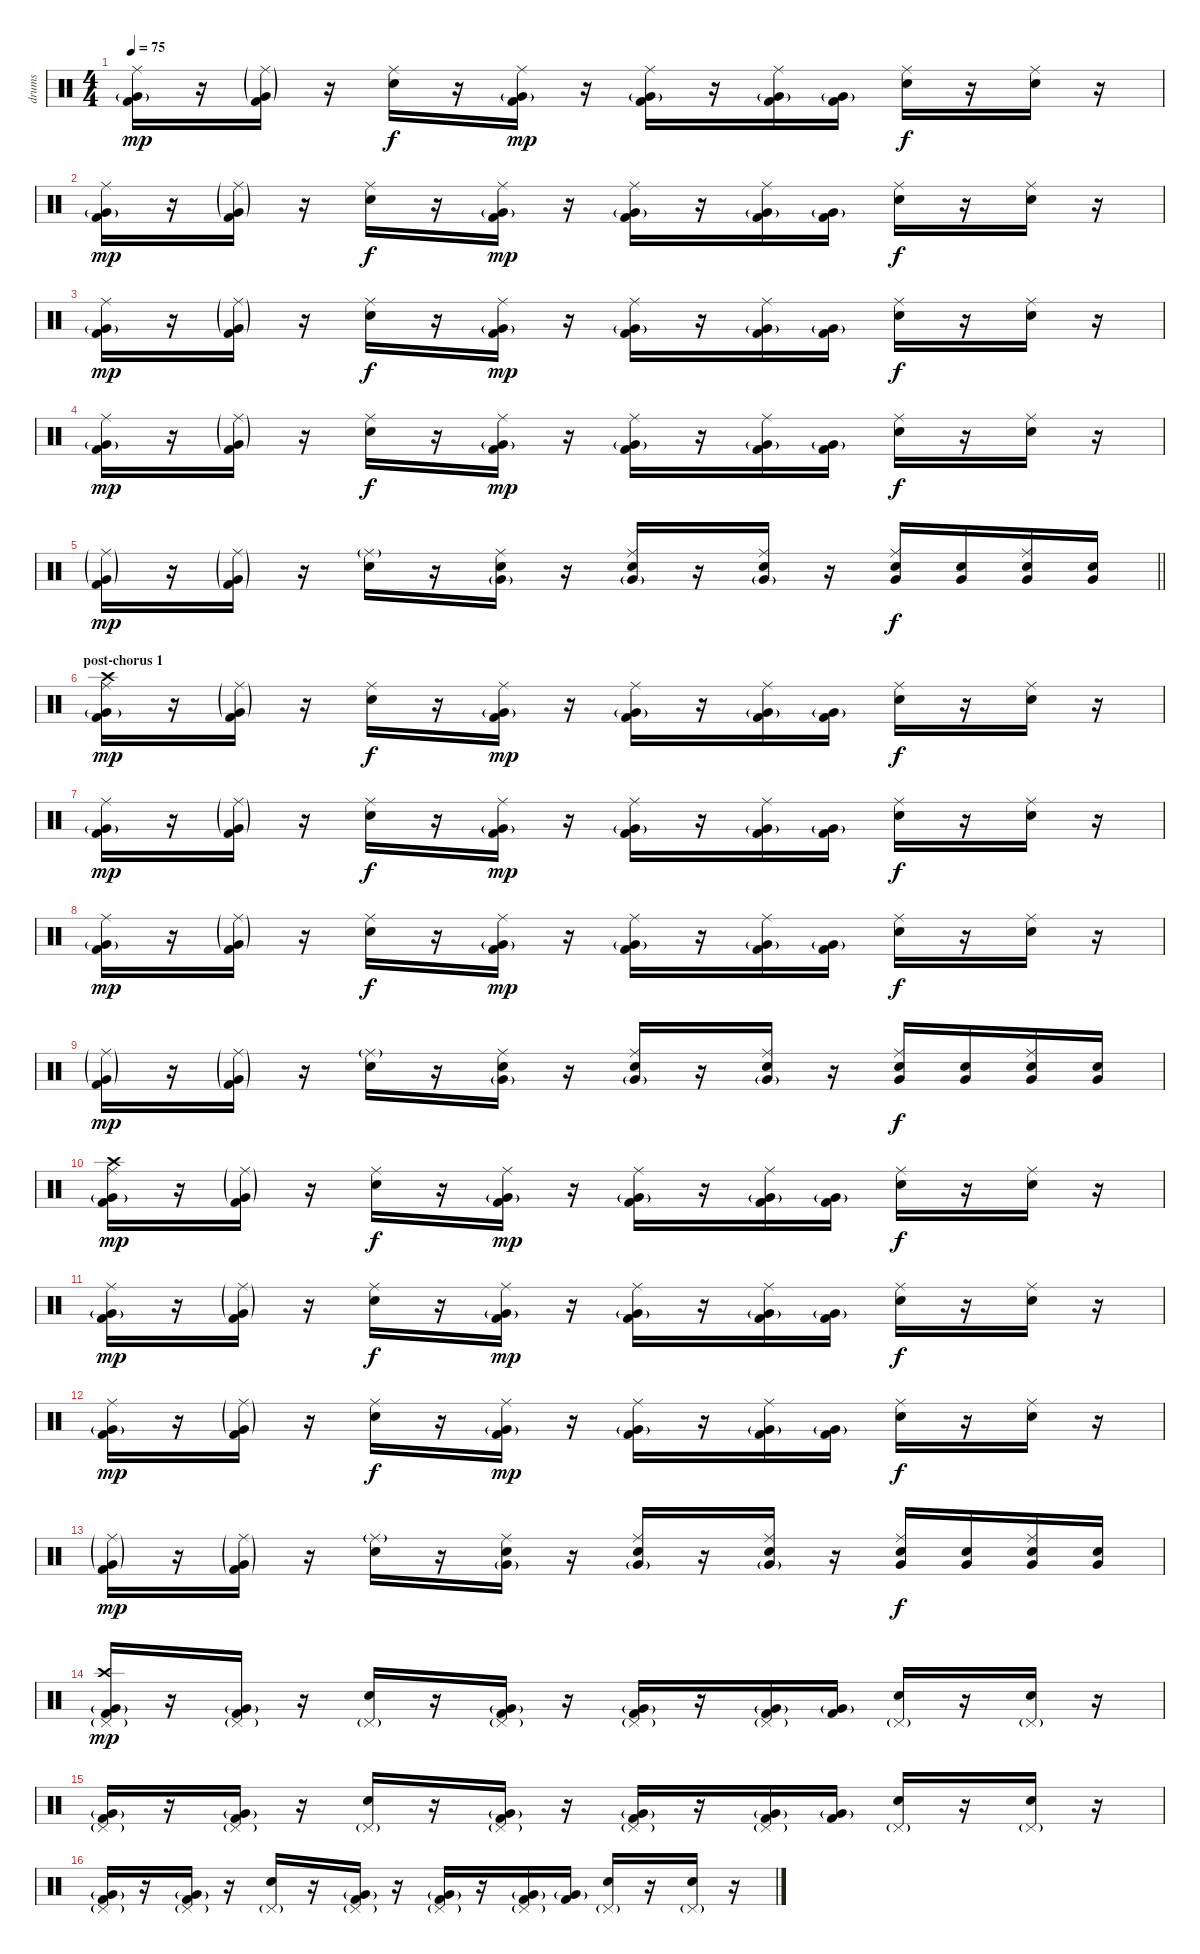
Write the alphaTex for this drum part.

\track ("drums" "drums") {instrument percussion}
\staff {score}
\articulation defaults
\ts (4 4)
\tempo 75
\clef neutral
\ks c
("Kick (hit) 2" "Very Low Tom (hit)"{g} "Ride (middle)").16{dy mp} r.16 ("Kick (hit) 2" "Very Low Tom (hit)"{g} "Ride (middle)"{g}).16 r.16 ("Electric Snare (hit)" "Ride (middle)").16{dy f} r.16 ("Kick (hit) 2" "Very Low Tom (hit)"{g} "Ride (middle)").16{dy mp} r.16 ("Kick (hit) 2" "Very Low Tom (hit)"{g} "Ride (middle)").16 r.16 ("Kick (hit) 2" "Very Low Tom (hit)"{g} "Ride (middle)").16 ("Kick (hit) 2" "Very Low Tom (hit)"{g}).16 ("Electric Snare (hit)" "Ride (middle)").16{dy f} r.16 ("Electric Snare (hit)" "Ride (middle)").16 r.16 |
("Kick (hit) 2" "Very Low Tom (hit)"{g} "Ride (middle)").16{dy mp} r.16 ("Kick (hit) 2" "Very Low Tom (hit)"{g} "Ride (middle)"{g}).16 r.16 ("Electric Snare (hit)" "Ride (middle)").16{dy f} r.16 ("Kick (hit) 2" "Very Low Tom (hit)"{g} "Ride (middle)").16{dy mp} r.16 ("Kick (hit) 2" "Very Low Tom (hit)"{g} "Ride (middle)").16 r.16 ("Kick (hit) 2" "Very Low Tom (hit)"{g} "Ride (middle)").16 ("Kick (hit) 2" "Very Low Tom (hit)"{g}).16 ("Electric Snare (hit)" "Ride (middle)").16{dy f} r.16 ("Electric Snare (hit)" "Ride (middle)").16 r.16 |
("Kick (hit) 2" "Very Low Tom (hit)"{g} "Ride (middle)").16{dy mp} r.16 ("Kick (hit) 2" "Very Low Tom (hit)"{g} "Ride (middle)"{g}).16 r.16 ("Electric Snare (hit)" "Ride (middle)").16{dy f} r.16 ("Kick (hit) 2" "Very Low Tom (hit)"{g} "Ride (middle)").16{dy mp} r.16 ("Kick (hit) 2" "Very Low Tom (hit)"{g} "Ride (middle)").16 r.16 ("Kick (hit) 2" "Very Low Tom (hit)"{g} "Ride (middle)").16 ("Kick (hit) 2" "Very Low Tom (hit)"{g}).16 ("Electric Snare (hit)" "Ride (middle)").16{dy f} r.16 ("Electric Snare (hit)" "Ride (middle)").16 r.16 |
("Kick (hit) 2" "Very Low Tom (hit)"{g} "Ride (middle)").16{dy mp} r.16 ("Kick (hit) 2" "Very Low Tom (hit)"{g} "Ride (middle)"{g}).16 r.16 ("Electric Snare (hit)" "Ride (middle)").16{dy f} r.16 ("Kick (hit) 2" "Very Low Tom (hit)"{g} "Ride (middle)").16{dy mp} r.16 ("Kick (hit) 2" "Very Low Tom (hit)"{g} "Ride (middle)").16 r.16 ("Kick (hit) 2" "Very Low Tom (hit)"{g} "Ride (middle)").16 ("Kick (hit) 2" "Very Low Tom (hit)"{g}).16 ("Electric Snare (hit)" "Ride (middle)").16{dy f} r.16 ("Electric Snare (hit)" "Ride (middle)").16 r.16 |
\barLineRight lightlight
("Kick (hit) 2" "Very Low Tom (hit)"{g} "Ride (middle)"{g}).16{dy mp} r.16 ("Kick (hit) 2"{g} "Very Low Tom (hit)"{g} "Ride (middle)"{g}).16 r.16 ("Electric Snare (hit)" "Ride (middle)"{g}).16 r.16 ("Electric Snare (hit)" "Very Low Tom (hit)"{g} "Ride (middle)").16 r.16 ("Electric Snare (hit)" "Very Low Tom (hit)"{g} "Ride (middle)").16 r.16 ("Electric Snare (hit)" "Very Low Tom (hit)"{g} "Ride (middle)").16 r.16 ("Electric Snare (hit)" "Very Low Tom (hit)" "Ride (middle)").16{dy f} ("Electric Snare (hit)" "Very Low Tom (hit)").16 ("Electric Snare (hit)" "Very Low Tom (hit)" "Ride (middle)").16 ("Electric Snare (hit)" "Very Low Tom (hit)").16 |
\section ("" "post-chorus 1")
("Kick (hit) 2" "Very Low Tom (hit)"{g} "Ride (middle)" "Crash high (hit)").16{dy mp} r.16 ("Kick (hit) 2" "Very Low Tom (hit)"{g} "Ride (middle)"{g}).16 r.16 ("Electric Snare (hit)" "Ride (middle)").16{dy f} r.16 ("Kick (hit) 2" "Very Low Tom (hit)"{g} "Ride (middle)").16{dy mp} r.16 ("Kick (hit) 2" "Very Low Tom (hit)"{g} "Ride (middle)").16 r.16 ("Kick (hit) 2" "Very Low Tom (hit)"{g} "Ride (middle)").16 ("Kick (hit) 2" "Very Low Tom (hit)"{g}).16 ("Electric Snare (hit)" "Ride (middle)").16{dy f} r.16 ("Electric Snare (hit)" "Ride (middle)").16 r.16 |
("Kick (hit) 2" "Very Low Tom (hit)"{g} "Ride (middle)").16{dy mp} r.16 ("Kick (hit) 2" "Very Low Tom (hit)"{g} "Ride (middle)"{g}).16 r.16 ("Electric Snare (hit)" "Ride (middle)").16{dy f} r.16 ("Kick (hit) 2" "Very Low Tom (hit)"{g} "Ride (middle)").16{dy mp} r.16 ("Kick (hit) 2" "Very Low Tom (hit)"{g} "Ride (middle)").16 r.16 ("Kick (hit) 2" "Very Low Tom (hit)"{g} "Ride (middle)").16 ("Kick (hit) 2" "Very Low Tom (hit)"{g}).16 ("Electric Snare (hit)" "Ride (middle)").16{dy f} r.16 ("Electric Snare (hit)" "Ride (middle)").16 r.16 |
("Kick (hit) 2" "Very Low Tom (hit)"{g} "Ride (middle)").16{dy mp} r.16 ("Kick (hit) 2" "Very Low Tom (hit)"{g} "Ride (middle)"{g}).16 r.16 ("Electric Snare (hit)" "Ride (middle)").16{dy f} r.16 ("Kick (hit) 2" "Very Low Tom (hit)"{g} "Ride (middle)").16{dy mp} r.16 ("Kick (hit) 2" "Very Low Tom (hit)"{g} "Ride (middle)").16 r.16 ("Kick (hit) 2" "Very Low Tom (hit)"{g} "Ride (middle)").16 ("Kick (hit) 2" "Very Low Tom (hit)"{g}).16 ("Electric Snare (hit)" "Ride (middle)").16{dy f} r.16 ("Electric Snare (hit)" "Ride (middle)").16 r.16 |
("Kick (hit) 2" "Very Low Tom (hit)"{g} "Ride (middle)"{g}).16{dy mp} r.16 ("Kick (hit) 2"{g} "Very Low Tom (hit)"{g} "Ride (middle)"{g}).16 r.16 ("Electric Snare (hit)" "Ride (middle)"{g}).16 r.16 ("Electric Snare (hit)" "Very Low Tom (hit)"{g} "Ride (middle)").16 r.16 ("Electric Snare (hit)" "Very Low Tom (hit)"{g} "Ride (middle)").16 r.16 ("Electric Snare (hit)" "Very Low Tom (hit)"{g} "Ride (middle)").16 r.16 ("Electric Snare (hit)" "Very Low Tom (hit)" "Ride (middle)").16{dy f} ("Electric Snare (hit)" "Very Low Tom (hit)").16 ("Electric Snare (hit)" "Very Low Tom (hit)" "Ride (middle)").16 ("Electric Snare (hit)" "Very Low Tom (hit)").16 |
("Kick (hit) 2" "Very Low Tom (hit)"{g} "Ride (middle)" "Crash high (hit)").16{dy mp} r.16 ("Kick (hit) 2" "Very Low Tom (hit)"{g} "Ride (middle)"{g}).16 r.16 ("Electric Snare (hit)" "Ride (middle)").16{dy f} r.16 ("Kick (hit) 2" "Very Low Tom (hit)"{g} "Ride (middle)").16{dy mp} r.16 ("Kick (hit) 2" "Very Low Tom (hit)"{g} "Ride (middle)").16 r.16 ("Kick (hit) 2" "Very Low Tom (hit)"{g} "Ride (middle)").16 ("Kick (hit) 2" "Very Low Tom (hit)"{g}).16 ("Electric Snare (hit)" "Ride (middle)").16{dy f} r.16 ("Electric Snare (hit)" "Ride (middle)").16 r.16 |
("Kick (hit) 2" "Very Low Tom (hit)"{g} "Ride (middle)").16{dy mp} r.16 ("Kick (hit) 2" "Very Low Tom (hit)"{g} "Ride (middle)"{g}).16 r.16 ("Electric Snare (hit)" "Ride (middle)").16{dy f} r.16 ("Kick (hit) 2" "Very Low Tom (hit)"{g} "Ride (middle)").16{dy mp} r.16 ("Kick (hit) 2" "Very Low Tom (hit)"{g} "Ride (middle)").16 r.16 ("Kick (hit) 2" "Very Low Tom (hit)"{g} "Ride (middle)").16 ("Kick (hit) 2" "Very Low Tom (hit)"{g}).16 ("Electric Snare (hit)" "Ride (middle)").16{dy f} r.16 ("Electric Snare (hit)" "Ride (middle)").16 r.16 |
("Kick (hit) 2" "Very Low Tom (hit)"{g} "Ride (middle)").16{dy mp} r.16 ("Kick (hit) 2" "Very Low Tom (hit)"{g} "Ride (middle)"{g}).16 r.16 ("Electric Snare (hit)" "Ride (middle)").16{dy f} r.16 ("Kick (hit) 2" "Very Low Tom (hit)"{g} "Ride (middle)").16{dy mp} r.16 ("Kick (hit) 2" "Very Low Tom (hit)"{g} "Ride (middle)").16 r.16 ("Kick (hit) 2" "Very Low Tom (hit)"{g} "Ride (middle)").16 ("Kick (hit) 2" "Very Low Tom (hit)"{g}).16 ("Electric Snare (hit)" "Ride (middle)").16{dy f} r.16 ("Electric Snare (hit)" "Ride (middle)").16 r.16 |
("Kick (hit) 2" "Very Low Tom (hit)"{g} "Ride (middle)"{g}).16{dy mp} r.16 ("Kick (hit) 2"{g} "Very Low Tom (hit)"{g} "Ride (middle)"{g}).16 r.16 ("Electric Snare (hit)" "Ride (middle)"{g}).16 r.16 ("Electric Snare (hit)" "Very Low Tom (hit)"{g} "Ride (middle)").16 r.16 ("Electric Snare (hit)" "Very Low Tom (hit)"{g} "Ride (middle)").16 r.16 ("Electric Snare (hit)" "Very Low Tom (hit)"{g} "Ride (middle)").16 r.16 ("Electric Snare (hit)" "Very Low Tom (hit)" "Ride (middle)").16{dy f} ("Electric Snare (hit)" "Very Low Tom (hit)").16 ("Electric Snare (hit)" "Very Low Tom (hit)" "Ride (middle)").16 ("Electric Snare (hit)" "Very Low Tom (hit)").16 |
("Kick (hit) 2" "Very Low Tom (hit)"{g} "Pedal Hi-Hat (hit)"{g} "Crash high (hit)").16{dy mp} r.16 ("Kick (hit) 2" "Very Low Tom (hit)"{g} "Pedal Hi-Hat (hit)"{g}).16 r.16 ("Electric Snare (hit)" "Pedal Hi-Hat (hit)"{g}).16 r.16 ("Kick (hit) 2" "Very Low Tom (hit)"{g} "Pedal Hi-Hat (hit)"{g}).16 r.16 ("Kick (hit) 2" "Very Low Tom (hit)"{g} "Pedal Hi-Hat (hit)"{g}).16 r.16 ("Kick (hit) 2" "Very Low Tom (hit)"{g} "Pedal Hi-Hat (hit)"{g}).16 ("Kick (hit) 2" "Very Low Tom (hit)"{g}).16 ("Electric Snare (hit)" "Pedal Hi-Hat (hit)"{g}).16 r.16 ("Electric Snare (hit)" "Pedal Hi-Hat (hit)"{g}).16 r.16 |
("Kick (hit) 2" "Very Low Tom (hit)"{g} "Pedal Hi-Hat (hit)"{g}).16 r.16 ("Kick (hit) 2" "Very Low Tom (hit)"{g} "Pedal Hi-Hat (hit)"{g}).16 r.16 ("Electric Snare (hit)" "Pedal Hi-Hat (hit)"{g}).16 r.16 ("Kick (hit) 2" "Very Low Tom (hit)"{g} "Pedal Hi-Hat (hit)"{g}).16 r.16 ("Kick (hit) 2" "Very Low Tom (hit)"{g} "Pedal Hi-Hat (hit)"{g}).16 r.16 ("Kick (hit) 2" "Very Low Tom (hit)"{g} "Pedal Hi-Hat (hit)"{g}).16 ("Kick (hit) 2" "Very Low Tom (hit)"{g}).16 ("Electric Snare (hit)" "Pedal Hi-Hat (hit)"{g}).16 r.16 ("Electric Snare (hit)" "Pedal Hi-Hat (hit)"{g}).16 r.16 |
("Kick (hit) 2" "Very Low Tom (hit)"{g} "Pedal Hi-Hat (hit)"{g}).16 r.16 ("Kick (hit) 2" "Very Low Tom (hit)"{g} "Pedal Hi-Hat (hit)"{g}).16 r.16 ("Electric Snare (hit)" "Pedal Hi-Hat (hit)"{g}).16 r.16 ("Kick (hit) 2" "Very Low Tom (hit)"{g} "Pedal Hi-Hat (hit)"{g}).16 r.16 ("Kick (hit) 2" "Very Low Tom (hit)"{g} "Pedal Hi-Hat (hit)"{g}).16 r.16 ("Kick (hit) 2" "Very Low Tom (hit)"{g} "Pedal Hi-Hat (hit)"{g}).16 ("Kick (hit) 2" "Very Low Tom (hit)"{g}).16 ("Electric Snare (hit)" "Pedal Hi-Hat (hit)"{g}).16 r.16 ("Electric Snare (hit)" "Pedal Hi-Hat (hit)"{g}).16 r.16
